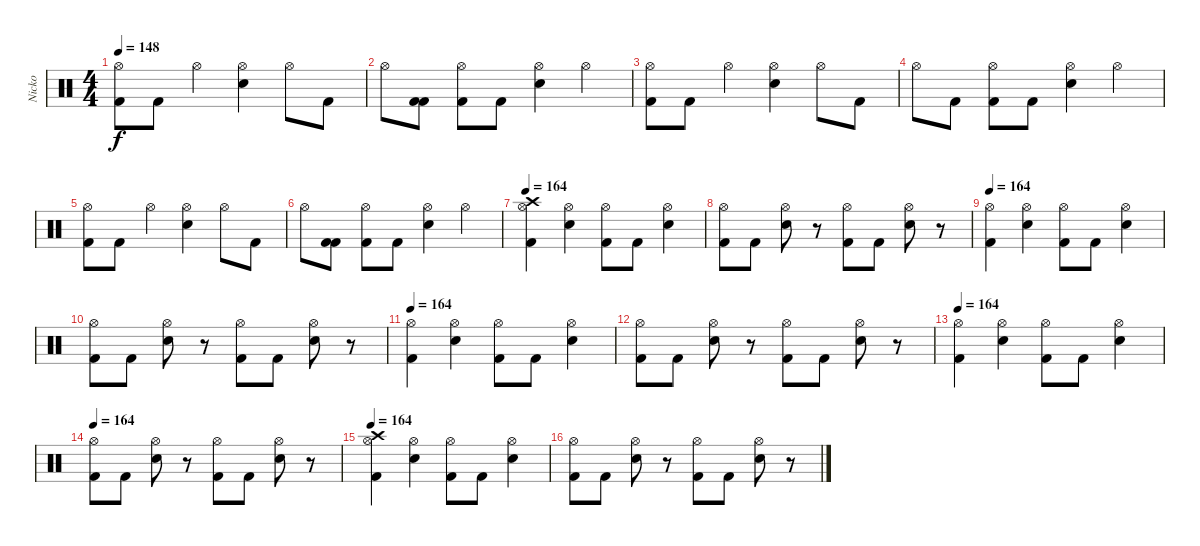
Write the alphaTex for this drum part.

\track ("Nicko" "Nicko") {instrument percussion}
\staff {score}
\articulation defaults
\ts (4 4)
\tempo 148
\clef neutral
\ks c
("Hi-Hat (open)" "Kick (hit) 2").8{dy f} "Kick (hit) 2".8 "Hi-Hat (open)".4 ("Hi-Hat (open)" "Snare (hit) 2").4 "Hi-Hat (open)".8 "Kick (hit) 2".8 |
"Hi-Hat (open)".8 ("Kick (hit) 2" "Kick (hit) 2").8 ("Hi-Hat (open)" "Kick (hit) 2").8 "Kick (hit) 2".8 ("Hi-Hat (open)" "Snare (hit) 2").4 "Hi-Hat (open)".4 |
("Hi-Hat (open)" "Kick (hit) 2").8 "Kick (hit) 2".8 "Hi-Hat (open)".4 ("Hi-Hat (open)" "Snare (hit) 2").4 "Hi-Hat (open)".8 "Kick (hit) 2".8 |
"Hi-Hat (open)".8 "Kick (hit) 2".8 ("Hi-Hat (open)" "Kick (hit) 2").8 "Kick (hit) 2".8 ("Hi-Hat (open)" "Snare (hit) 2").4 "Hi-Hat (open)".4 |
("Hi-Hat (open)" "Kick (hit) 2").8 "Kick (hit) 2".8 "Hi-Hat (open)".4 ("Hi-Hat (open)" "Snare (hit) 2").4 "Hi-Hat (open)".8 "Kick (hit) 2".8 |
"Hi-Hat (open)".8 ("Kick (hit) 2" "Kick (hit) 2").8 ("Hi-Hat (open)" "Kick (hit) 2").8 "Kick (hit) 2".8 ("Hi-Hat (open)" "Snare (hit) 2").4 "Hi-Hat (open)".4 |
\tempo 164
("Hi-Hat (open)" "Crash high (hit)" "Kick (hit) 2").4 ("Hi-Hat (open)" "Snare (hit) 2").4 ("Hi-Hat (open)" "Kick (hit) 2").8 "Kick (hit) 2".8 ("Hi-Hat (open)" "Snare (hit) 2").4 |
("Hi-Hat (open)" "Kick (hit) 2").8 "Kick (hit) 2".8 ("Hi-Hat (open)" "Snare (hit) 2").8 r.8 ("Hi-Hat (open)" "Kick (hit) 2").8 "Kick (hit) 2".8 ("Hi-Hat (open)" "Snare (hit) 2").8 r.8 |
\tempo 164
("Hi-Hat (open)" "Kick (hit) 2").4 ("Hi-Hat (open)" "Snare (hit) 2").4 ("Hi-Hat (open)" "Kick (hit) 2").8 "Kick (hit) 2".8 ("Hi-Hat (open)" "Snare (hit) 2").4 |
("Hi-Hat (open)" "Kick (hit) 2").8 "Kick (hit) 2".8 ("Hi-Hat (open)" "Snare (hit) 2").8 r.8 ("Hi-Hat (open)" "Kick (hit) 2").8 "Kick (hit) 2".8 ("Hi-Hat (open)" "Snare (hit) 2").8 r.8 |
\tempo 164
("Hi-Hat (open)" "Kick (hit) 2").4 ("Hi-Hat (open)" "Snare (hit) 2").4 ("Hi-Hat (open)" "Kick (hit) 2").8 "Kick (hit) 2".8 ("Hi-Hat (open)" "Snare (hit) 2").4 |
("Hi-Hat (open)" "Kick (hit) 2").8 "Kick (hit) 2".8 ("Hi-Hat (open)" "Snare (hit) 2").8 r.8 ("Hi-Hat (open)" "Kick (hit) 2").8 "Kick (hit) 2".8 ("Hi-Hat (open)" "Snare (hit) 2").8 r.8 |
\tempo 164
("Hi-Hat (open)" "Kick (hit) 2").4 ("Hi-Hat (open)" "Snare (hit) 2").4 ("Hi-Hat (open)" "Kick (hit) 2").8 "Kick (hit) 2".8 ("Hi-Hat (open)" "Snare (hit) 2").4 |
\tempo 164
("Hi-Hat (open)" "Kick (hit) 2").8 "Kick (hit) 2".8 ("Hi-Hat (open)" "Snare (hit) 2").8 r.8 ("Hi-Hat (open)" "Kick (hit) 2").8 "Kick (hit) 2".8 ("Hi-Hat (open)" "Snare (hit) 2").8 r.8 |
\tempo 164
("Hi-Hat (open)" "Crash high (hit)" "Kick (hit) 2").4 ("Hi-Hat (open)" "Snare (hit) 2").4 ("Hi-Hat (open)" "Kick (hit) 2").8 "Kick (hit) 2".8 ("Hi-Hat (open)" "Snare (hit) 2").4 |
("Hi-Hat (open)" "Kick (hit) 2").8 "Kick (hit) 2".8 ("Hi-Hat (open)" "Snare (hit) 2").8 r.8 ("Hi-Hat (open)" "Kick (hit) 2").8 "Kick (hit) 2".8 ("Hi-Hat (open)" "Snare (hit) 2").8 r.8
